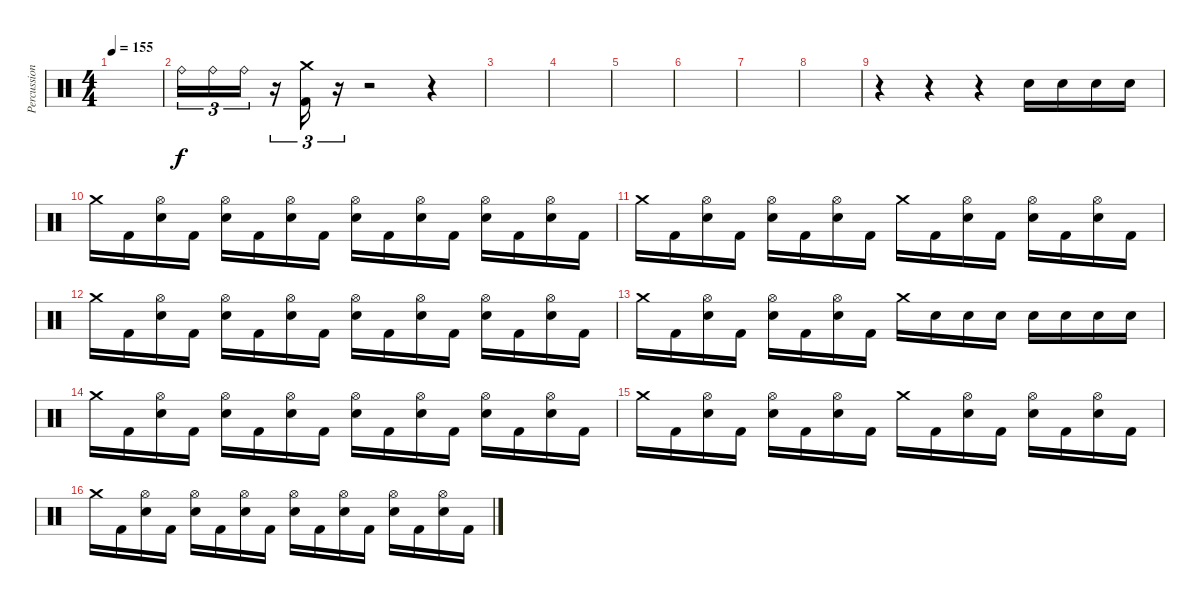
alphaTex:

\track ("Percussion" "Percussion") {instrument percussion}
\staff {score}
\articulation defaults
\ts (4 4)
\tempo 155
\clef neutral
\ks c
|
"Ride (bell)".16{tu (3 2)} "Ride (bell)".16{tu (3 2)} "Ride (bell)".16{tu (3 2)} r.16{tu (3 2)} ("Kick (hit) 2" "Crash medium (hit)").16{tu (3 2)} r.16{tu (3 2)} r.2 r.4 |
|
|
|
|
|
|
r.4 r.4 r.4 "Snare (hit) 2".16 "Snare (hit) 2".16 "Snare (hit) 2".16 "Snare (hit) 2".16 |
"Crash medium (hit)".16 "Kick (hit) 2".16 ("Snare (hit) 2" "Hi-Hat (open)").16 "Kick (hit) 2".16 ("Snare (hit) 2" "Hi-Hat (open)").16 "Kick (hit) 2".16 ("Snare (hit) 2" "Hi-Hat (open)").16 "Kick (hit) 2".16 ("Snare (hit) 2" "Hi-Hat (open)").16 "Kick (hit) 2".16 ("Snare (hit) 2" "Hi-Hat (open)").16 "Kick (hit) 2".16 ("Snare (hit) 2" "Hi-Hat (open)").16 "Kick (hit) 2".16 ("Snare (hit) 2" "Hi-Hat (open)").16 "Kick (hit) 2".16 |
"Crash medium (hit)".16 "Kick (hit) 2".16 ("Snare (hit) 2" "Hi-Hat (open)").16 "Kick (hit) 2".16 ("Snare (hit) 2" "Hi-Hat (open)").16 "Kick (hit) 2".16 ("Snare (hit) 2" "Hi-Hat (open)").16 "Kick (hit) 2".16 "Crash medium (hit)".16 "Kick (hit) 2".16 ("Snare (hit) 2" "Hi-Hat (open)").16 "Kick (hit) 2".16 ("Snare (hit) 2" "Hi-Hat (open)").16 "Kick (hit) 2".16 ("Snare (hit) 2" "Hi-Hat (open)").16 "Kick (hit) 2".16 |
"Crash medium (hit)".16 "Kick (hit) 2".16 ("Snare (hit) 2" "Hi-Hat (open)").16 "Kick (hit) 2".16 ("Snare (hit) 2" "Hi-Hat (open)").16 "Kick (hit) 2".16 ("Snare (hit) 2" "Hi-Hat (open)").16 "Kick (hit) 2".16 ("Snare (hit) 2" "Hi-Hat (open)").16 "Kick (hit) 2".16 ("Snare (hit) 2" "Hi-Hat (open)").16 "Kick (hit) 2".16 ("Snare (hit) 2" "Hi-Hat (open)").16 "Kick (hit) 2".16 ("Snare (hit) 2" "Hi-Hat (open)").16 "Kick (hit) 2".16 |
"Crash medium (hit)".16 "Kick (hit) 2".16 ("Snare (hit) 2" "Hi-Hat (open)").16 "Kick (hit) 2".16 ("Snare (hit) 2" "Hi-Hat (open)").16 "Kick (hit) 2".16 ("Snare (hit) 2" "Hi-Hat (open)").16 "Kick (hit) 2".16 "Crash medium (hit)".16 "Snare (hit) 2".16 "Snare (hit) 2".16 "Snare (hit) 2".16 "Snare (hit) 2".16 "Snare (hit) 2".16 "Snare (hit) 2".16 "Snare (hit) 2".16 |
"Crash medium (hit)".16 "Kick (hit) 2".16 ("Snare (hit) 2" "Hi-Hat (open)").16 "Kick (hit) 2".16 ("Snare (hit) 2" "Hi-Hat (open)").16 "Kick (hit) 2".16 ("Snare (hit) 2" "Hi-Hat (open)").16 "Kick (hit) 2".16 ("Snare (hit) 2" "Hi-Hat (open)").16 "Kick (hit) 2".16 ("Snare (hit) 2" "Hi-Hat (open)").16 "Kick (hit) 2".16 ("Snare (hit) 2" "Hi-Hat (open)").16 "Kick (hit) 2".16 ("Snare (hit) 2" "Hi-Hat (open)").16 "Kick (hit) 2".16 |
"Crash medium (hit)".16 "Kick (hit) 2".16 ("Snare (hit) 2" "Hi-Hat (open)").16 "Kick (hit) 2".16 ("Snare (hit) 2" "Hi-Hat (open)").16 "Kick (hit) 2".16 ("Snare (hit) 2" "Hi-Hat (open)").16 "Kick (hit) 2".16 "Crash medium (hit)".16 "Kick (hit) 2".16 ("Snare (hit) 2" "Hi-Hat (open)").16 "Kick (hit) 2".16 ("Snare (hit) 2" "Hi-Hat (open)").16 "Kick (hit) 2".16 ("Snare (hit) 2" "Hi-Hat (open)").16 "Kick (hit) 2".16 |
"Crash medium (hit)".16 "Kick (hit) 2".16 ("Snare (hit) 2" "Hi-Hat (open)").16 "Kick (hit) 2".16 ("Snare (hit) 2" "Hi-Hat (open)").16 "Kick (hit) 2".16 ("Snare (hit) 2" "Hi-Hat (open)").16 "Kick (hit) 2".16 ("Snare (hit) 2" "Hi-Hat (open)").16 "Kick (hit) 2".16 ("Snare (hit) 2" "Hi-Hat (open)").16 "Kick (hit) 2".16 ("Snare (hit) 2" "Hi-Hat (open)").16 "Kick (hit) 2".16 ("Snare (hit) 2" "Hi-Hat (open)").16 "Kick (hit) 2".16
